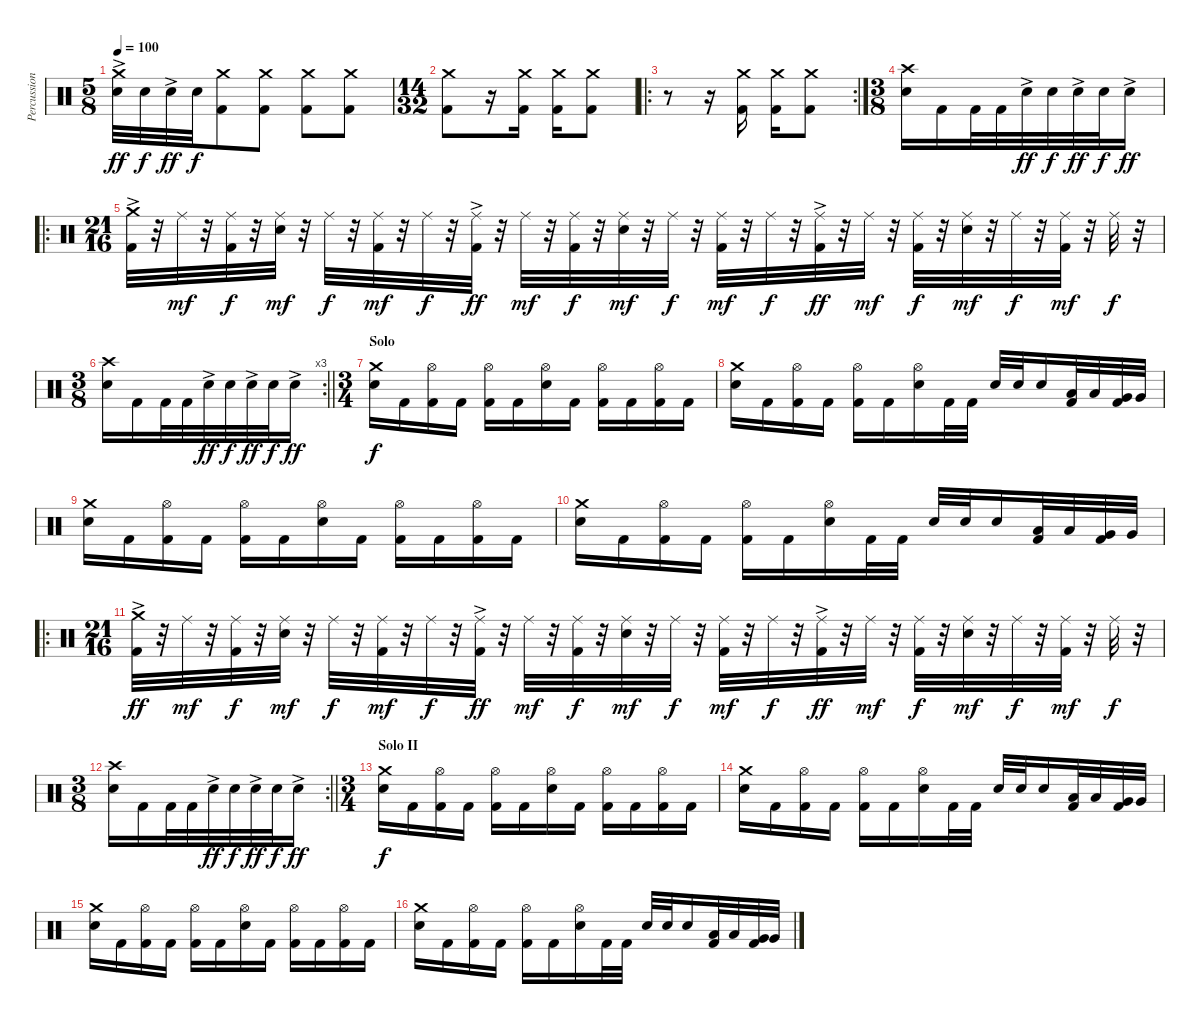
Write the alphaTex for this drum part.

\track ("Percussion" "Percussion") {instrument percussion}
\staff {score}
\articulation defaults
\ts (5 8)
\tempo 100
\clef neutral
\ks c
("Crash medium (hit)" "Electric Snare (hit)"{ac}).32{dy ff} "Electric Snare (hit)".32{dy f} "Electric Snare (hit)"{ac}.32{dy ff} "Electric Snare (hit)".32{dy f} ("Crash medium (hit)" "Kick (hit) 2").8 ("Crash medium (hit)" "Kick (hit) 2").8 ("Crash medium (hit)" "Kick (hit) 2").8 ("Crash medium (hit)" "Kick (hit) 2").8 |
\ts (14 32)
("Crash medium (hit)" "Kick (hit) 2").8 r.16 ("Crash medium (hit)" "Kick (hit) 2").16 ("Crash medium (hit)" "Kick (hit) 2").16 ("Crash medium (hit)" "Kick (hit) 2").8 |
\ro
\rc 2
r.8 r.16 ("Crash medium (hit)" "Kick (hit) 2").16 ("Crash medium (hit)" "Kick (hit) 2").16 ("Crash medium (hit)" "Kick (hit) 2").8 |
\ts (3 8)
("Crash high (hit)" "Electric Snare (hit)").16 "Kick (hit) 2".16 "Kick (hit) 2".32 "Kick (hit) 2".32 "Electric Snare (hit)"{ac}.32{dy ff} "Electric Snare (hit)".32{dy f} "Electric Snare (hit)"{ac}.32{dy ff} "Electric Snare (hit)".32{dy f} "Electric Snare (hit)"{ac}.16{dy ff} |
\ro
\ts (21 16)
("Crash medium (hit)"{ac} "Kick (hit) 2").32 r.32 "Ride (middle)".32{dy mf} r.32 ("Ride (middle)" "Kick (hit) 2").32{dy f} r.32 ("Ride (middle)" "Electric Snare (hit)").32{dy mf} r.32 "Ride (middle)".32{dy f} r.32 ("Ride (middle)" "Kick (hit) 2").32{dy mf} r.32 "Ride (middle)".32{dy f} r.32 ("Ride (middle)"{ac} "Kick (hit) 2").32{dy ff} r.32 "Ride (middle)".32{dy mf} r.32 ("Ride (middle)" "Kick (hit) 2").32{dy f} r.32 ("Ride (middle)" "Electric Snare (hit)").32{dy mf} r.32 "Ride (middle)".32{dy f} r.32 ("Ride (middle)" "Kick (hit) 2").32{dy mf} r.32 "Ride (middle)".32{dy f} r.32 ("Ride (middle)"{ac} "Kick (hit) 2").32{dy ff} r.32 "Ride (middle)".32{dy mf} r.32 ("Ride (middle)" "Kick (hit) 2").32{dy f} r.32 ("Ride (middle)" "Electric Snare (hit)").32{dy mf} r.32 "Ride (middle)".32{dy f} r.32 ("Ride (middle)" "Kick (hit) 2").32{dy mf} r.32 "Ride (middle)".32{dy f} r.32 |
\rc 3
\ts (3 8)
\barLineRight lightlight
("Crash high (hit)" "Electric Snare (hit)").16 "Kick (hit) 2".16 "Kick (hit) 2".32 "Kick (hit) 2".32 "Electric Snare (hit)"{ac}.32{dy ff} "Electric Snare (hit)".32{dy f} "Electric Snare (hit)"{ac}.32{dy ff} "Electric Snare (hit)".32{dy f} "Electric Snare (hit)"{ac}.16{dy ff} |
\ts (3 4)
\section ("" "Solo")
("Crash medium (hit)" "Electric Snare (hit)").16{dy f} "Kick (hit) 2".16 ("Hi-Hat (open)" "Kick (hit) 2").16 "Kick (hit) 2".16 ("Hi-Hat (open)" "Kick (hit) 2").16 "Kick (hit) 2".16 ("Hi-Hat (open)" "Electric Snare (hit)").16 "Kick (hit) 2".16 ("Hi-Hat (open)" "Kick (hit) 2").16 "Kick (hit) 2".16 ("Hi-Hat (open)" "Kick (hit) 2").16 "Kick (hit) 2".16 |
("Crash medium (hit)" "Electric Snare (hit)").16 "Kick (hit) 2".16 ("Hi-Hat (open)" "Kick (hit) 2").16 "Kick (hit) 2".16 ("Hi-Hat (open)" "Kick (hit) 2").16 "Kick (hit) 2".16 ("Hi-Hat (open)" "Electric Snare (hit)").16 "Kick (hit) 2".32 "Kick (hit) 2".32 "Electric Snare (hit)".32 "Electric Snare (hit)".32 "Electric Snare (hit)".16 ("Low Tom (hit)" "Kick (hit) 2").32 "Low Tom (hit)".32 ("Very Low Tom (hit)" "Kick (hit) 2").32 "Very Low Tom (hit)".32 |
("Crash medium (hit)" "Electric Snare (hit)").16 "Kick (hit) 2".16 ("Hi-Hat (open)" "Kick (hit) 2").16 "Kick (hit) 2".16 ("Hi-Hat (open)" "Kick (hit) 2").16 "Kick (hit) 2".16 ("Hi-Hat (open)" "Electric Snare (hit)").16 "Kick (hit) 2".16 ("Hi-Hat (open)" "Kick (hit) 2").16 "Kick (hit) 2".16 ("Hi-Hat (open)" "Kick (hit) 2").16 "Kick (hit) 2".16 |
("Crash medium (hit)" "Electric Snare (hit)").16 "Kick (hit) 2".16 ("Hi-Hat (open)" "Kick (hit) 2").16 "Kick (hit) 2".16 ("Hi-Hat (open)" "Kick (hit) 2").16 "Kick (hit) 2".16 ("Hi-Hat (open)" "Electric Snare (hit)").16 "Kick (hit) 2".32 "Kick (hit) 2".32 "Electric Snare (hit)".32 "Electric Snare (hit)".32 "Electric Snare (hit)".16 ("Low Tom (hit)" "Kick (hit) 2").32 "Low Tom (hit)".32 ("Very Low Tom (hit)" "Kick (hit) 2").32 "Very Low Tom (hit)".32 |
\ro
\ts (21 16)
("Crash medium (hit)"{ac} "Kick (hit) 2").32{dy ff} r.32 "Ride (middle)".32{dy mf} r.32 ("Ride (middle)" "Kick (hit) 2").32{dy f} r.32 ("Ride (middle)" "Electric Snare (hit)").32{dy mf} r.32 "Ride (middle)".32{dy f} r.32 ("Ride (middle)" "Kick (hit) 2").32{dy mf} r.32 "Ride (middle)".32{dy f} r.32 ("Ride (middle)"{ac} "Kick (hit) 2").32{dy ff} r.32 "Ride (middle)".32{dy mf} r.32 ("Ride (middle)" "Kick (hit) 2").32{dy f} r.32 ("Ride (middle)" "Electric Snare (hit)").32{dy mf} r.32 "Ride (middle)".32{dy f} r.32 ("Ride (middle)" "Kick (hit) 2").32{dy mf} r.32 "Ride (middle)".32{dy f} r.32 ("Ride (middle)"{ac} "Kick (hit) 2").32{dy ff} r.32 "Ride (middle)".32{dy mf} r.32 ("Ride (middle)" "Kick (hit) 2").32{dy f} r.32 ("Ride (middle)" "Electric Snare (hit)").32{dy mf} r.32 "Ride (middle)".32{dy f} r.32 ("Ride (middle)" "Kick (hit) 2").32{dy mf} r.32 "Ride (middle)".32{dy f} r.32 |
\rc 2
\ts (3 8)
\barLineRight lightlight
("Crash high (hit)" "Electric Snare (hit)").16 "Kick (hit) 2".16 "Kick (hit) 2".32 "Kick (hit) 2".32 "Electric Snare (hit)"{ac}.32{dy ff} "Electric Snare (hit)".32{dy f} "Electric Snare (hit)"{ac}.32{dy ff} "Electric Snare (hit)".32{dy f} "Electric Snare (hit)"{ac}.16{dy ff} |
\ts (3 4)
\section ("" "Solo II")
("Crash medium (hit)" "Electric Snare (hit)").16{dy f} "Kick (hit) 2".16 ("Hi-Hat (open)" "Kick (hit) 2").16 "Kick (hit) 2".16 ("Hi-Hat (open)" "Kick (hit) 2").16 "Kick (hit) 2".16 ("Hi-Hat (open)" "Electric Snare (hit)").16 "Kick (hit) 2".16 ("Hi-Hat (open)" "Kick (hit) 2").16 "Kick (hit) 2".16 ("Hi-Hat (open)" "Kick (hit) 2").16 "Kick (hit) 2".16 |
("Crash medium (hit)" "Electric Snare (hit)").16 "Kick (hit) 2".16 ("Hi-Hat (open)" "Kick (hit) 2").16 "Kick (hit) 2".16 ("Hi-Hat (open)" "Kick (hit) 2").16 "Kick (hit) 2".16 ("Hi-Hat (open)" "Electric Snare (hit)").16 "Kick (hit) 2".32 "Kick (hit) 2".32 "Electric Snare (hit)".32 "Electric Snare (hit)".32 "Electric Snare (hit)".16 ("Low Tom (hit)" "Kick (hit) 2").32 "Low Tom (hit)".32 ("Very Low Tom (hit)" "Kick (hit) 2").32 "Very Low Tom (hit)".32 |
("Crash medium (hit)" "Electric Snare (hit)").16 "Kick (hit) 2".16 ("Hi-Hat (open)" "Kick (hit) 2").16 "Kick (hit) 2".16 ("Hi-Hat (open)" "Kick (hit) 2").16 "Kick (hit) 2".16 ("Hi-Hat (open)" "Electric Snare (hit)").16 "Kick (hit) 2".16 ("Hi-Hat (open)" "Kick (hit) 2").16 "Kick (hit) 2".16 ("Hi-Hat (open)" "Kick (hit) 2").16 "Kick (hit) 2".16 |
("Crash medium (hit)" "Electric Snare (hit)").16 "Kick (hit) 2".16 ("Hi-Hat (open)" "Kick (hit) 2").16 "Kick (hit) 2".16 ("Hi-Hat (open)" "Kick (hit) 2").16 "Kick (hit) 2".16 ("Hi-Hat (open)" "Electric Snare (hit)").16 "Kick (hit) 2".32 "Kick (hit) 2".32 "Electric Snare (hit)".32 "Electric Snare (hit)".32 "Electric Snare (hit)".16 ("Low Tom (hit)" "Kick (hit) 2").32 "Low Tom (hit)".32 ("Very Low Tom (hit)" "Kick (hit) 2").32 "Very Low Tom (hit)".32
